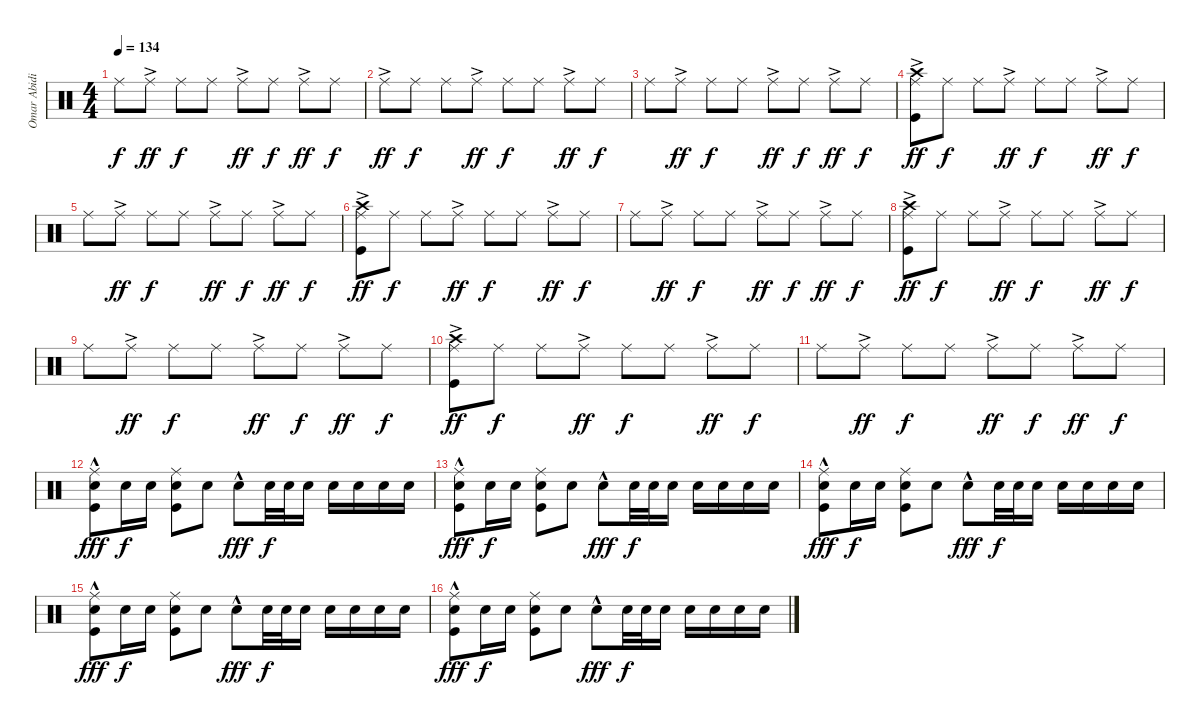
\track ("Omar Abidi" "Omar Abidi") {instrument percussion}
\staff {score}
\articulation defaults
\ts (4 4)
\tempo 134
\clef neutral
\ks c "Ride (middle)".8{dy f} "Ride (middle)"{ac}.8{dy ff} "Ride (middle)".8{dy f} "Ride (middle)".8 "Ride (middle)"{ac}.8{dy ff} "Ride (middle)".8{dy f} "Ride (middle)"{ac}.8{dy ff} "Ride (middle)".8{dy f}
|
"Ride (middle)"{ac}.8{dy ff} "Ride (middle)".8{dy f} "Ride (middle)".8 "Ride (middle)"{ac}.8{dy ff} "Ride (middle)".8{dy f} "Ride (middle)".8 "Ride (middle)"{ac}.8{dy ff} "Ride (middle)".8{dy f} |
"Ride (middle)".8 "Ride (middle)"{ac}.8{dy ff} "Ride (middle)".8{dy f} "Ride (middle)".8 "Ride (middle)"{ac}.8{dy ff} "Ride (middle)".8{dy f} "Ride (middle)"{ac}.8{dy ff} "Ride (middle)".8{dy f} |
("Crash high (hit)" "Ride (middle)"{ac} "Kick (hit)").8{dy ff} "Ride (middle)".8{dy f} "Ride (middle)".8 "Ride (middle)"{ac}.8{dy ff} "Ride (middle)".8{dy f} "Ride (middle)".8 "Ride (middle)"{ac}.8{dy ff} "Ride (middle)".8{dy f} |
"Ride (middle)".8 "Ride (middle)"{ac}.8{dy ff} "Ride (middle)".8{dy f} "Ride (middle)".8 "Ride (middle)"{ac}.8{dy ff} "Ride (middle)".8{dy f} "Ride (middle)"{ac}.8{dy ff} "Ride (middle)".8{dy f} |
("Crash high (hit)" "Ride (middle)"{ac} "Kick (hit)").8{dy ff} "Ride (middle)".8{dy f} "Ride (middle)".8 "Ride (middle)"{ac}.8{dy ff} "Ride (middle)".8{dy f} "Ride (middle)".8 "Ride (middle)"{ac}.8{dy ff} "Ride (middle)".8{dy f} |
"Ride (middle)".8 "Ride (middle)"{ac}.8{dy ff} "Ride (middle)".8{dy f} "Ride (middle)".8 "Ride (middle)"{ac}.8{dy ff} "Ride (middle)".8{dy f} "Ride (middle)"{ac}.8{dy ff} "Ride (middle)".8{dy f} |
("Crash high (hit)" "Ride (middle)"{ac} "Kick (hit)").8{dy ff} "Ride (middle)".8{dy f} "Ride (middle)".8 "Ride (middle)"{ac}.8{dy ff} "Ride (middle)".8{dy f} "Ride (middle)".8 "Ride (middle)"{ac}.8{dy ff} "Ride (middle)".8{dy f} |
"Ride (middle)".8 "Ride (middle)"{ac}.8{dy ff} "Ride (middle)".8{dy f} "Ride (middle)".8 "Ride (middle)"{ac}.8{dy ff} "Ride (middle)".8{dy f} "Ride (middle)"{ac}.8{dy ff} "Ride (middle)".8{dy f} |
("Crash high (hit)" "Ride (middle)"{ac} "Kick (hit)").8{dy ff} "Ride (middle)".8{dy f} "Ride (middle)".8 "Ride (middle)"{ac}.8{dy ff} "Ride (middle)".8{dy f} "Ride (middle)".8 "Ride (middle)"{ac}.8{dy ff} "Ride (middle)".8{dy f} |
"Ride (middle)".8 "Ride (middle)"{ac}.8{dy ff} "Ride (middle)".8{dy f} "Ride (middle)".8 "Ride (middle)"{ac}.8{dy ff} "Ride (middle)".8{dy f} "Ride (middle)"{ac}.8{dy ff} "Ride (middle)".8{dy f} |
("Ride (middle)" "Snare (hit) 2"{hac} "Kick (hit)").8{dy fff} "Snare (hit) 2".16{dy f} "Snare (hit) 2".16 ("Ride (middle)" "Snare (hit) 2" "Kick (hit)").8 "Snare (hit) 2".8 "Snare (hit) 2"{hac}.8{dy fff} "Snare (hit) 2".32{dy f} "Snare (hit) 2".32 "Snare (hit) 2".16 "Snare (hit) 2".16 "Snare (hit) 2".16 "Snare (hit) 2".16 "Snare (hit) 2".16 |
("Ride (middle)" "Snare (hit) 2"{hac} "Kick (hit)").8{dy fff} "Snare (hit) 2".16{dy f} "Snare (hit) 2".16 ("Ride (middle)" "Snare (hit) 2" "Kick (hit)").8 "Snare (hit) 2".8 "Snare (hit) 2"{hac}.8{dy fff} "Snare (hit) 2".32{dy f} "Snare (hit) 2".32 "Snare (hit) 2".16 "Snare (hit) 2".16 "Snare (hit) 2".16 "Snare (hit) 2".16 "Snare (hit) 2".16 |
("Ride (middle)" "Snare (hit) 2"{hac} "Kick (hit)").8{dy fff} "Snare (hit) 2".16{dy f} "Snare (hit) 2".16 ("Ride (middle)" "Snare (hit) 2" "Kick (hit)").8 "Snare (hit) 2".8 "Snare (hit) 2"{hac}.8{dy fff} "Snare (hit) 2".32{dy f} "Snare (hit) 2".32 "Snare (hit) 2".16 "Snare (hit) 2".16 "Snare (hit) 2".16 "Snare (hit) 2".16 "Snare (hit) 2".16 |
("Ride (middle)" "Snare (hit) 2"{hac} "Kick (hit)").8{dy fff} "Snare (hit) 2".16{dy f} "Snare (hit) 2".16 ("Ride (middle)" "Snare (hit) 2" "Kick (hit)").8 "Snare (hit) 2".8 "Snare (hit) 2"{hac}.8{dy fff} "Snare (hit) 2".32{dy f} "Snare (hit) 2".32 "Snare (hit) 2".16 "Snare (hit) 2".16 "Snare (hit) 2".16 "Snare (hit) 2".16 "Snare (hit) 2".16 |
("Ride (middle)" "Snare (hit) 2"{hac} "Kick (hit)").8{dy fff} "Snare (hit) 2".16{dy f} "Snare (hit) 2".16 ("Ride (middle)" "Snare (hit) 2" "Kick (hit)").8 "Snare (hit) 2".8 "Snare (hit) 2"{hac}.8{dy fff} "Snare (hit) 2".32{dy f} "Snare (hit) 2".32 "Snare (hit) 2".16 "Snare (hit) 2".16 "Snare (hit) 2".16 "Snare (hit) 2".16 "Snare (hit) 2".16
